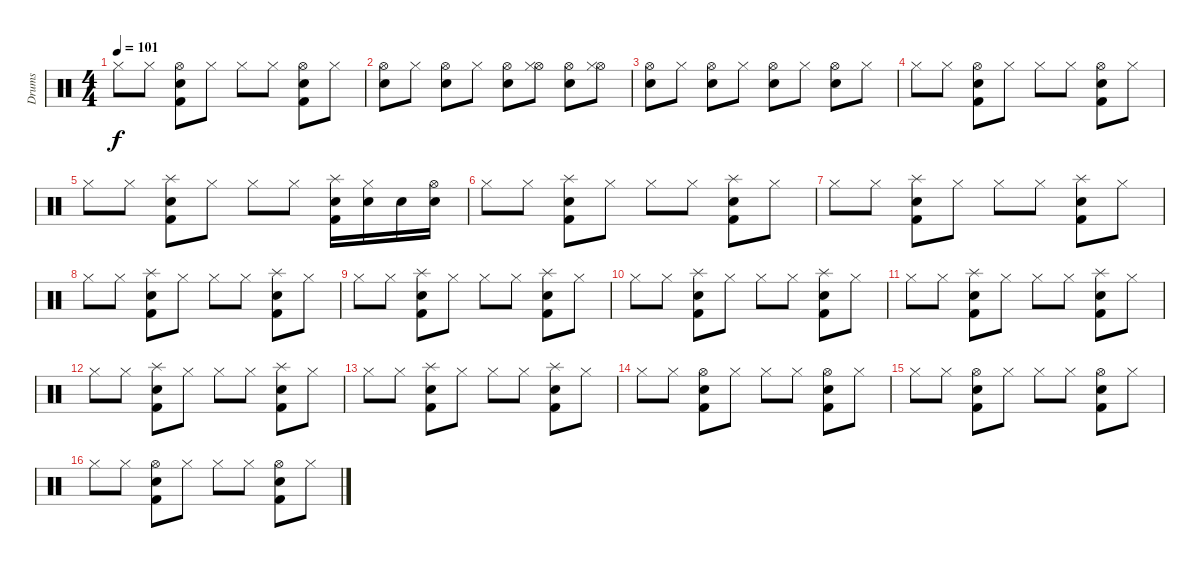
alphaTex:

\track ("Drums" "Drums") {instrument percussion}
\staff {score}
\articulation defaults
\ts (4 4)
\tempo 101
\clef neutral
\ks c "Hi-Hat (closed)".8{dy f} "Hi-Hat (closed)".8
("Snare (hit) 2" "Hi-Hat (open)" "Kick (hit) 2").8 "Hi-Hat (closed)".8 "Hi-Hat (closed)".8 "Hi-Hat (closed)".8 ("Snare (hit) 2" "Hi-Hat (open)" "Kick (hit) 2").8 "Hi-Hat (closed)".8 |
("Hi-Hat (open)" "Snare (hit) 2").8 "Hi-Hat (closed)".8 ("Hi-Hat (open)" "Snare (hit) 2").8 "Hi-Hat (closed)".8 ("Hi-Hat (open)" "Snare (hit) 2").8 ("Hi-Hat (open)" "Hi-Hat (closed)").8 ("Hi-Hat (open)" "Snare (hit) 2").8 ("Hi-Hat (open)" "Hi-Hat (closed)").8 |
("Hi-Hat (open)" "Snare (hit) 2").8 "Hi-Hat (closed)".8 ("Hi-Hat (open)" "Snare (hit) 2").8 "Hi-Hat (closed)".8 ("Hi-Hat (open)" "Snare (hit) 2").8 "Hi-Hat (closed)".8 ("Hi-Hat (open)" "Snare (hit) 2").8 "Hi-Hat (closed)".8 |
"Hi-Hat (closed)".8 "Hi-Hat (closed)".8 ("Snare (hit) 2" "Hi-Hat (open)" "Kick (hit) 2").8 "Hi-Hat (closed)".8 "Hi-Hat (closed)".8 "Hi-Hat (closed)".8 ("Snare (hit) 2" "Hi-Hat (open)" "Kick (hit) 2").8 "Hi-Hat (closed)".8 |
"Hi-Hat (closed)".8 "Hi-Hat (closed)".8 ("Snare (hit) 2" "Splash (hit)" "Kick (hit) 2").8 "Hi-Hat (closed)".8 "Hi-Hat (closed)".8 "Hi-Hat (closed)".8 ("Snare (hit) 2" "Splash (hit)" "Kick (hit) 2").16 ("Snare (hit) 2" "Hi-Hat (closed)").16 "Snare (hit) 2".16 ("Snare (hit) 2" "Hi-Hat (open)").16 |
"Hi-Hat (closed)".8 "Hi-Hat (closed)".8 ("Snare (hit) 2" "Splash (hit)" "Kick (hit) 2").8 "Hi-Hat (closed)".8 "Hi-Hat (closed)".8 "Hi-Hat (closed)".8 ("Snare (hit) 2" "Splash (hit)" "Kick (hit) 2").8 "Hi-Hat (closed)".8 |
"Hi-Hat (closed)".8 "Hi-Hat (closed)".8 ("Snare (hit) 2" "Splash (hit)" "Kick (hit) 2").8 "Hi-Hat (closed)".8 "Hi-Hat (closed)".8 "Hi-Hat (closed)".8 ("Snare (hit) 2" "Splash (hit)" "Kick (hit) 2").8 "Hi-Hat (closed)".8 |
"Hi-Hat (closed)".8 "Hi-Hat (closed)".8 ("Snare (hit) 2" "Splash (hit)" "Kick (hit) 2").8 "Hi-Hat (closed)".8 "Hi-Hat (closed)".8 "Hi-Hat (closed)".8 ("Snare (hit) 2" "Splash (hit)" "Kick (hit) 2").8 "Hi-Hat (closed)".8 |
"Hi-Hat (closed)".8 "Hi-Hat (closed)".8 ("Snare (hit) 2" "Splash (hit)" "Kick (hit) 2").8 "Hi-Hat (closed)".8 "Hi-Hat (closed)".8 "Hi-Hat (closed)".8 ("Snare (hit) 2" "Splash (hit)" "Kick (hit) 2").8 "Hi-Hat (closed)".8 |
"Hi-Hat (closed)".8 "Hi-Hat (closed)".8 ("Snare (hit) 2" "Splash (hit)" "Kick (hit) 2").8 "Hi-Hat (closed)".8 "Hi-Hat (closed)".8 "Hi-Hat (closed)".8 ("Snare (hit) 2" "Splash (hit)" "Kick (hit) 2").8 "Hi-Hat (closed)".8 |
"Hi-Hat (closed)".8 "Hi-Hat (closed)".8 ("Snare (hit) 2" "Splash (hit)" "Kick (hit) 2").8 "Hi-Hat (closed)".8 "Hi-Hat (closed)".8 "Hi-Hat (closed)".8 ("Snare (hit) 2" "Splash (hit)" "Kick (hit) 2").8 "Hi-Hat (closed)".8 |
"Hi-Hat (closed)".8 "Hi-Hat (closed)".8 ("Snare (hit) 2" "Splash (hit)" "Kick (hit) 2").8 "Hi-Hat (closed)".8 "Hi-Hat (closed)".8 "Hi-Hat (closed)".8 ("Snare (hit) 2" "Splash (hit)" "Kick (hit) 2").8 "Hi-Hat (closed)".8 |
"Hi-Hat (closed)".8 "Hi-Hat (closed)".8 ("Snare (hit) 2" "Splash (hit)" "Kick (hit) 2").8 "Hi-Hat (closed)".8 "Hi-Hat (closed)".8 "Hi-Hat (closed)".8 ("Snare (hit) 2" "Splash (hit)" "Kick (hit) 2").8 "Hi-Hat (closed)".8 |
"Hi-Hat (closed)".8 "Hi-Hat (closed)".8 ("Snare (hit) 2" "Hi-Hat (open)" "Kick (hit) 2").8 "Hi-Hat (closed)".8 "Hi-Hat (closed)".8 "Hi-Hat (closed)".8 ("Snare (hit) 2" "Hi-Hat (open)" "Kick (hit) 2").8 "Hi-Hat (closed)".8 |
"Hi-Hat (closed)".8 "Hi-Hat (closed)".8 ("Snare (hit) 2" "Hi-Hat (open)" "Kick (hit) 2").8 "Hi-Hat (closed)".8 "Hi-Hat (closed)".8 "Hi-Hat (closed)".8 ("Snare (hit) 2" "Hi-Hat (open)" "Kick (hit) 2").8 "Hi-Hat (closed)".8 |
"Hi-Hat (closed)".8 "Hi-Hat (closed)".8 ("Snare (hit) 2" "Hi-Hat (open)" "Kick (hit) 2").8 "Hi-Hat (closed)".8 "Hi-Hat (closed)".8 "Hi-Hat (closed)".8 ("Snare (hit) 2" "Hi-Hat (open)" "Kick (hit) 2").8 "Hi-Hat (closed)".8
